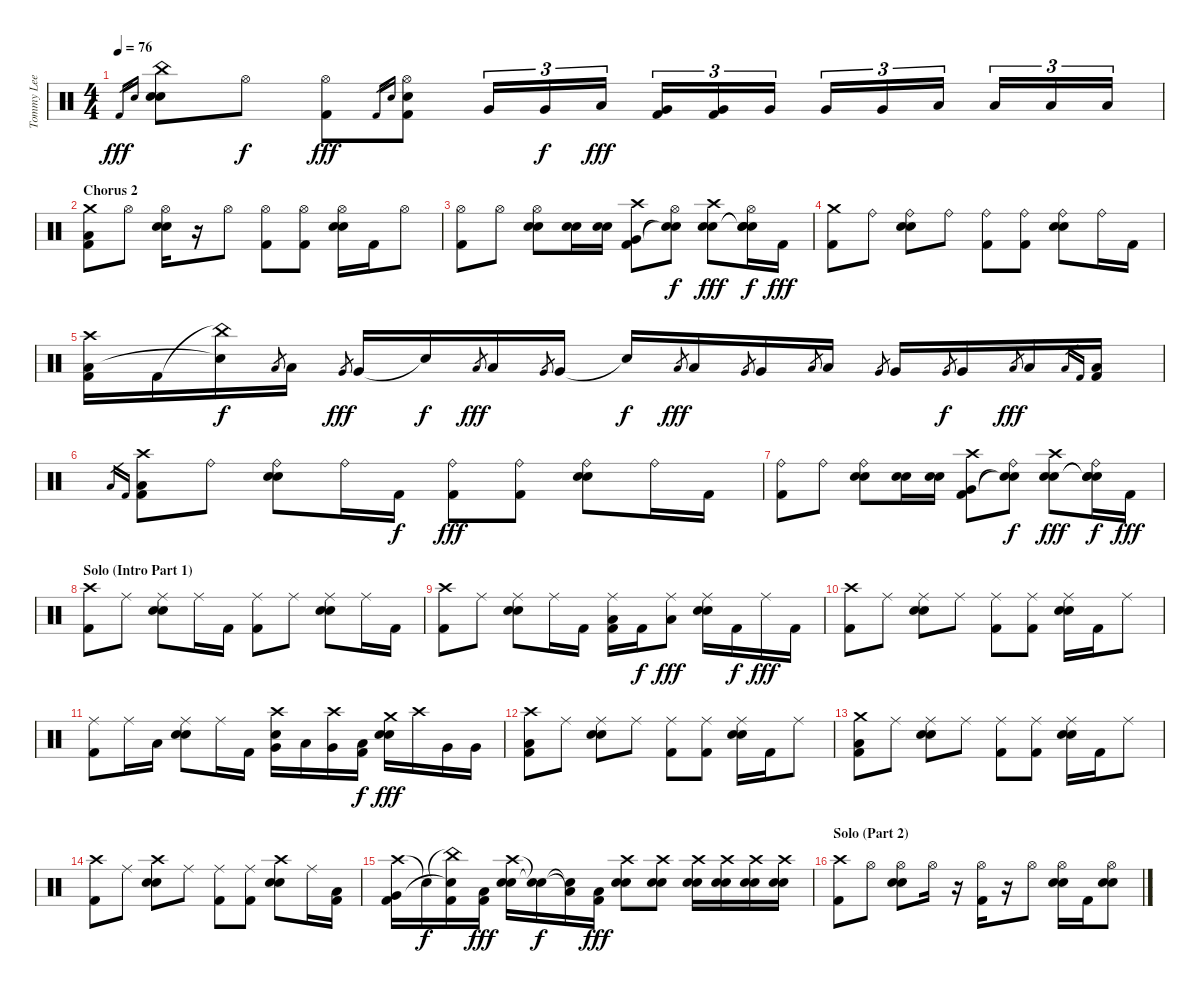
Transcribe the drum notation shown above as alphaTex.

\track ("Tommy Lee" "Tommy Lee") {instrument percussion}
\staff {score}
\articulation defaults
\ts (4 4)
\tempo 76
\clef neutral
\ks c "Kick (hit) 2".16{gr dy fff} "Electric Snare (hit)".16{gr}
("China (hit)" "Snare (hit) 2" "Electric Snare (hit)").8 "Hi-Hat (open)".8{dy f} ("Hi-Hat (open)" "Kick (hit) 2").8{dy fff} "Kick (hit) 2".16{gr} "Electric Snare (hit)".16{gr} ("Hi-Hat (open)" "Kick (hit) 2" "Electric Snare (hit)").8 "Very Low Tom (hit)".16{tu (3 2)} "Very Low Tom (hit)".16{tu (3 2) dy f} "Low Floor Tom (hit)".16{tu (3 2) dy fff} ("Very Low Tom (hit)" "Kick (hit) 2").16{tu (3 2)} ("Very Low Tom (hit)" "Kick (hit) 2").16{tu (3 2)} "Very Low Tom (hit)".16{tu (3 2)} "Very Low Tom (hit)".16{tu (3 2)} "Very Low Tom (hit)".16{tu (3 2)} "Low Tom (hit)".16{tu (3 2)} "Low Floor Tom (hit)".16{tu (3 2)} "Low Floor Tom (hit)".16{tu (3 2)} "Low Tom (hit)".16{tu (3 2)} |
\section ("" "Chorus 2")
("Crash medium (hit)" "Low Floor Tom (hit)" "Kick (hit) 2").8 "Hi-Hat (open)".8 ("Hi-Hat (open)" "Snare (hit) 2" "Electric Snare (hit)").16 r.16 "Hi-Hat (open)".8 ("Hi-Hat (open)" "Kick (hit) 2").8 ("Hi-Hat (open)" "Kick (hit) 2").8 ("Hi-Hat (open)" "Snare (hit) 2" "Electric Snare (hit)").16 "Kick (hit) 2".16 "Hi-Hat (open)".8 |
("Hi-Hat (open)" "Kick (hit) 2").8 "Hi-Hat (open)".8 ("Hi-Hat (open)" "Snare (hit) 2" "Electric Snare (hit)").8 ("Snare (hit) 2" "Electric Snare (hit)").16 ("Snare (hit) 2" "Electric Snare (hit)").16 ("Crash high (hit)" "Very Low Tom (hit)" "Kick (hit) 2").8 ("Hi-Hat (open)" "Snare (hit)"{t} "Snare (hit)"{t}).8{dy f} ("Crash high (hit)" "Snare (hit) 2" "Electric Snare (hit)").8{dy fff} ("Hi-Hat (open)" "Snare (hit)"{t} "Snare (hit)"{t} "Snare (hit)").16{dy f} "Kick (hit) 2".16{dy fff} |
("Crash medium (hit)" "Kick (hit) 2").8 "Ride (bell)".8 ("Ride (bell)" "Snare (hit) 2" "Electric Snare (hit)").8 "Ride (bell)".8 ("Ride (bell)" "Kick (hit) 2").8 ("Ride (bell)" "Kick (hit) 2").8 ("Ride (bell)" "Snare (hit) 2" "Electric Snare (hit)").8 "Ride (bell)".16 "Kick (hit) 2".16 |
("Crash high (hit)" "Low Floor Tom (hit)" "Kick (hit) 2").16 "Kick (hit) 2".16 ("China (hit)"{t} "Snare (hit)"{t}).16{dy f} "Low Floor Tom (hit)".8{gr} "Low Floor Tom (hit)".16 "Very Low Tom (hit)".8{gr dy fff} "Very Low Tom (hit)".16 "Snare (hit)"{t}.16{dy f} "Low Floor Tom (hit)".8{gr dy fff} "Low Floor Tom (hit)".16 "Very Low Tom (hit)".8{gr} "Very Low Tom (hit)".16 "Snare (hit) 2"{t}.16{dy f} "Low Floor Tom (hit)".8{gr dy fff} "Low Floor Tom (hit)".16 "Very Low Tom (hit)".8{gr} "Very Low Tom (hit)".16 "Low Floor Tom (hit)".8{gr} "Low Floor Tom (hit)".16 "Very Low Tom (hit)".8{gr} "Very Low Tom (hit)".16 "Very Low Tom (hit)".8{gr dy f} "Very Low Tom (hit)".16 "Low Floor Tom (hit)".8{gr dy fff} "Low Floor Tom (hit)".16 "Low Floor Tom (hit)".16{gr} "Kick (hit) 2".16{gr} ("Low Floor Tom (hit)" "Kick (hit) 2").16 |
"Low Floor Tom (hit)".16{gr} "Kick (hit) 2".16{gr} ("Crash high (hit)" "Low Floor Tom (hit)" "Kick (hit) 2").8 "Ride (bell)".8 ("Ride (bell)" "Snare (hit) 2" "Electric Snare (hit)").8 "Ride (bell)".16 "Kick (hit) 2".16{dy f} ("Ride (bell)" "Kick (hit) 2").8{dy fff} ("Ride (bell)" "Kick (hit) 2").8 ("Ride (bell)" "Snare (hit) 2" "Electric Snare (hit)").8 "Ride (bell)".16 "Kick (hit) 2".16 |
("Ride (bell)" "Kick (hit) 2").8 "Ride (bell)".8 ("Ride (bell)" "Snare (hit) 2" "Electric Snare (hit)").8 ("Snare (hit) 2" "Electric Snare (hit)").16 ("Snare (hit) 2" "Electric Snare (hit)").16 ("Crash high (hit)" "Very Low Tom (hit)" "Kick (hit) 2").8 ("Ride (bell)" "Snare (hit)"{t} "Snare (hit)"{t}).8{dy f} ("Crash high (hit)" "Snare (hit) 2" "Electric Snare (hit)").8{dy fff} ("Ride (bell)" "Snare (hit)"{t} "Snare (hit)"{t} "Snare (hit)").16{dy f} "Kick (hit) 2".16{dy fff} |
\section ("" "Solo (Intro Part 1)")
("Crash high (hit)" "Kick (hit) 2").8 "Ride (middle)".8 ("Ride (middle)" "Snare (hit) 2" "Electric Snare (hit)").8 "Ride (middle)".16 "Kick (hit) 2".16 ("Ride (middle)" "Kick (hit) 2").8 "Ride (middle)".8 ("Ride (middle)" "Snare (hit) 2" "Electric Snare (hit)").8 "Ride (middle)".16 "Kick (hit) 2".16 |
("Crash high (hit)" "Kick (hit) 2").8 "Ride (middle)".8 ("Ride (middle)" "Snare (hit) 2" "Electric Snare (hit)").8 "Ride (middle)".16 "Kick (hit) 2".16 ("Ride (middle)" "Low Floor Tom (hit)" "Kick (hit) 2").16 "Kick (hit) 2".16{dy f} ("Ride (middle)" "Low Tom (hit)").8{dy fff} ("Ride (middle)" "Snare (hit) 2" "Electric Snare (hit)").16 "Kick (hit) 2".16{dy f} "Ride (middle)".16{dy fff} "Kick (hit) 2".16 |
("Crash high (hit)" "Kick (hit) 2").8 "Ride (middle)".8 ("Ride (middle)" "Snare (hit) 2" "Electric Snare (hit)").8 "Ride (middle)".8 ("Ride (middle)" "Kick (hit) 2").8 ("Ride (middle)" "Kick (hit) 2").8 ("Ride (middle)" "Snare (hit) 2" "Electric Snare (hit)").16 "Kick (hit) 2".16 "Ride (middle)".8 |
("Ride (middle)" "Kick (hit) 2").8 "Ride (middle)".16 "Low Floor Tom (hit)".16 ("Ride (middle)" "Snare (hit) 2" "Electric Snare (hit)").8 "Ride (middle)".16 "Kick (hit) 2".16 ("Crash high (hit)" "Very Low Tom (hit)" "Electric Snare (hit)").16 "Low Floor Tom (hit)".16 ("Crash high (hit)" "Very Low Tom (hit)").16 ("Low Floor Tom (hit)" "Kick (hit) 2").16{dy f} ("Crash medium (hit)" "Snare (hit) 2" "Electric Snare (hit)").16{dy fff} "Crash high (hit)".16 "Very Low Tom (hit)".16 "Very Low Tom (hit)".16 |
("Crash high (hit)" "Low Tom (hit)" "Kick (hit) 2").8 "Ride (middle)".8 ("Ride (middle)" "Snare (hit) 2" "Electric Snare (hit)").8 "Ride (middle)".8 ("Ride (middle)" "Kick (hit) 2").8 ("Ride (middle)" "Kick (hit) 2").8 ("Ride (middle)" "Snare (hit) 2" "Electric Snare (hit)").16 "Kick (hit) 2".16 "Ride (middle)".8 |
("Crash medium (hit)" "Low Tom (hit)" "Kick (hit) 2").8 "Ride (middle)".8 ("Ride (middle)" "Snare (hit) 2" "Electric Snare (hit)").8 "Ride (middle)".8 ("Ride (middle)" "Kick (hit) 2").8 ("Ride (middle)" "Kick (hit) 2").8 ("Ride (middle)" "Snare (hit) 2" "Electric Snare (hit)").16 "Kick (hit) 2".16 "Ride (middle)".8 |
("Crash high (hit)" "Kick (hit) 2").8 "Ride (middle)".8 ("Crash high (hit)" "Snare (hit) 2" "Electric Snare (hit)").8 "Ride (middle)".8 ("Ride (middle)" "Kick (hit) 2").8 ("Ride (middle)" "Kick (hit) 2").8 ("Crash high (hit)" "Snare (hit) 2" "Electric Snare (hit)").8 "Ride (middle)".16 ("Low Floor Tom (hit)" "Kick (hit) 2").16 |
("Crash high (hit)" "Very Low Tom (hit)" "Kick (hit) 2").16 "Snare (hit)"{t}.16{dy f} ("China (hit)"{t} "Snare (hit)"{t} "Kick (hit) 2").16 ("Low Floor Tom (hit)" "Kick (hit) 2").16{dy fff} ("Crash high (hit)" "Snare (hit) 2" "Electric Snare (hit)").16 ("Snare (hit)"{t} "Snare (hit)"{t}).16{dy f} ("Snare (hit)"{t} "Low Floor Tom (hit)"{t}).16 ("Low Floor Tom (hit)" "Kick (hit) 2").16{dy fff} ("Crash high (hit)" "Snare (hit) 2" "Electric Snare (hit)").8 ("Crash high (hit)" "Snare (hit) 2" "Electric Snare (hit)").8 ("Crash high (hit)" "Snare (hit) 2" "Electric Snare (hit)").16 ("Crash high (hit)" "Snare (hit) 2" "Electric Snare (hit)").16 ("Crash high (hit)" "Snare (hit) 2" "Electric Snare (hit)").16 ("Crash high (hit)" "Snare (hit) 2" "Electric Snare (hit)").16 |
\section ("" "Solo (Part 2)")
("Crash high (hit)" "Kick (hit) 2").8 "Hi-Hat (open)".8 ("Hi-Hat (open)" "Snare (hit) 2" "Electric Snare (hit)").8 "Hi-Hat (open)".16 r.16 ("Hi-Hat (open)" "Kick (hit) 2").16 r.16 "Hi-Hat (open)".8 ("Hi-Hat (open)" "Snare (hit) 2" "Electric Snare (hit)").16 "Kick (hit) 2".16 ("Hi-Hat (open)" "Snare (hit) 2" "Electric Snare (hit)").8
